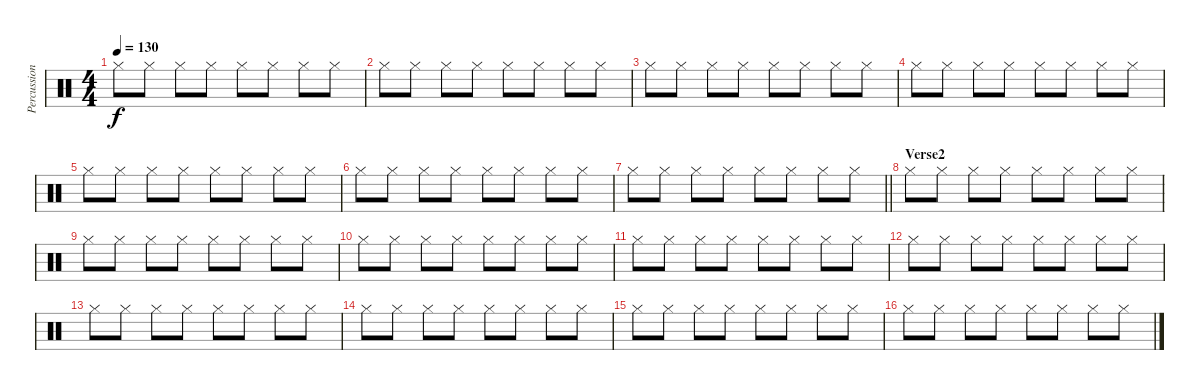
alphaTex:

\track ("Percussion" "Percussion") {instrument percussion}
\staff {score}
\articulation defaults
\ts (4 4)
\tempo 130
\clef neutral
\ks c "Hi-Hat (closed)".8{dy f} "Hi-Hat (closed)".8 "Hi-Hat (closed)".8 "Hi-Hat (closed)".8 "Hi-Hat (closed)".8 "Hi-Hat (closed)".8 "Hi-Hat (closed)".8 "Hi-Hat (closed)".8
|
"Hi-Hat (closed)".8 "Hi-Hat (closed)".8 "Hi-Hat (closed)".8 "Hi-Hat (closed)".8 "Hi-Hat (closed)".8 "Hi-Hat (closed)".8 "Hi-Hat (closed)".8 "Hi-Hat (closed)".8 |
"Hi-Hat (closed)".8 "Hi-Hat (closed)".8 "Hi-Hat (closed)".8 "Hi-Hat (closed)".8 "Hi-Hat (closed)".8 "Hi-Hat (closed)".8 "Hi-Hat (closed)".8 "Hi-Hat (closed)".8 |
"Hi-Hat (closed)".8 "Hi-Hat (closed)".8 "Hi-Hat (closed)".8 "Hi-Hat (closed)".8 "Hi-Hat (closed)".8 "Hi-Hat (closed)".8 "Hi-Hat (closed)".8 "Hi-Hat (closed)".8 |
"Hi-Hat (closed)".8 "Hi-Hat (closed)".8 "Hi-Hat (closed)".8 "Hi-Hat (closed)".8 "Hi-Hat (closed)".8 "Hi-Hat (closed)".8 "Hi-Hat (closed)".8 "Hi-Hat (closed)".8 |
"Hi-Hat (closed)".8 "Hi-Hat (closed)".8 "Hi-Hat (closed)".8 "Hi-Hat (closed)".8 "Hi-Hat (closed)".8 "Hi-Hat (closed)".8 "Hi-Hat (closed)".8 "Hi-Hat (closed)".8 |
\barLineRight lightlight "Hi-Hat (closed)".8 "Hi-Hat (closed)".8 "Hi-Hat (closed)".8 "Hi-Hat (closed)".8 "Hi-Hat (closed)".8 "Hi-Hat (closed)".8 "Hi-Hat (closed)".8 "Hi-Hat (closed)".8
|
\section ("" "Verse2")
"Hi-Hat (closed)".8 "Hi-Hat (closed)".8 "Hi-Hat (closed)".8 "Hi-Hat (closed)".8 "Hi-Hat (closed)".8 "Hi-Hat (closed)".8 "Hi-Hat (closed)".8 "Hi-Hat (closed)".8 |
"Hi-Hat (closed)".8 "Hi-Hat (closed)".8 "Hi-Hat (closed)".8 "Hi-Hat (closed)".8 "Hi-Hat (closed)".8 "Hi-Hat (closed)".8 "Hi-Hat (closed)".8 "Hi-Hat (closed)".8 |
"Hi-Hat (closed)".8 "Hi-Hat (closed)".8 "Hi-Hat (closed)".8 "Hi-Hat (closed)".8 "Hi-Hat (closed)".8 "Hi-Hat (closed)".8 "Hi-Hat (closed)".8 "Hi-Hat (closed)".8 |
"Hi-Hat (closed)".8 "Hi-Hat (closed)".8 "Hi-Hat (closed)".8 "Hi-Hat (closed)".8 "Hi-Hat (closed)".8 "Hi-Hat (closed)".8 "Hi-Hat (closed)".8 "Hi-Hat (closed)".8 |
"Hi-Hat (closed)".8 "Hi-Hat (closed)".8 "Hi-Hat (closed)".8 "Hi-Hat (closed)".8 "Hi-Hat (closed)".8 "Hi-Hat (closed)".8 "Hi-Hat (closed)".8 "Hi-Hat (closed)".8 |
"Hi-Hat (closed)".8 "Hi-Hat (closed)".8 "Hi-Hat (closed)".8 "Hi-Hat (closed)".8 "Hi-Hat (closed)".8 "Hi-Hat (closed)".8 "Hi-Hat (closed)".8 "Hi-Hat (closed)".8 |
"Hi-Hat (closed)".8 "Hi-Hat (closed)".8 "Hi-Hat (closed)".8 "Hi-Hat (closed)".8 "Hi-Hat (closed)".8 "Hi-Hat (closed)".8 "Hi-Hat (closed)".8 "Hi-Hat (closed)".8 |
"Hi-Hat (closed)".8 "Hi-Hat (closed)".8 "Hi-Hat (closed)".8 "Hi-Hat (closed)".8 "Hi-Hat (closed)".8 "Hi-Hat (closed)".8 "Hi-Hat (closed)".8 "Hi-Hat (closed)".8 |
"Hi-Hat (closed)".8 "Hi-Hat (closed)".8 "Hi-Hat (closed)".8 "Hi-Hat (closed)".8 "Hi-Hat (closed)".8 "Hi-Hat (closed)".8 "Hi-Hat (closed)".8 "Hi-Hat (closed)".8
